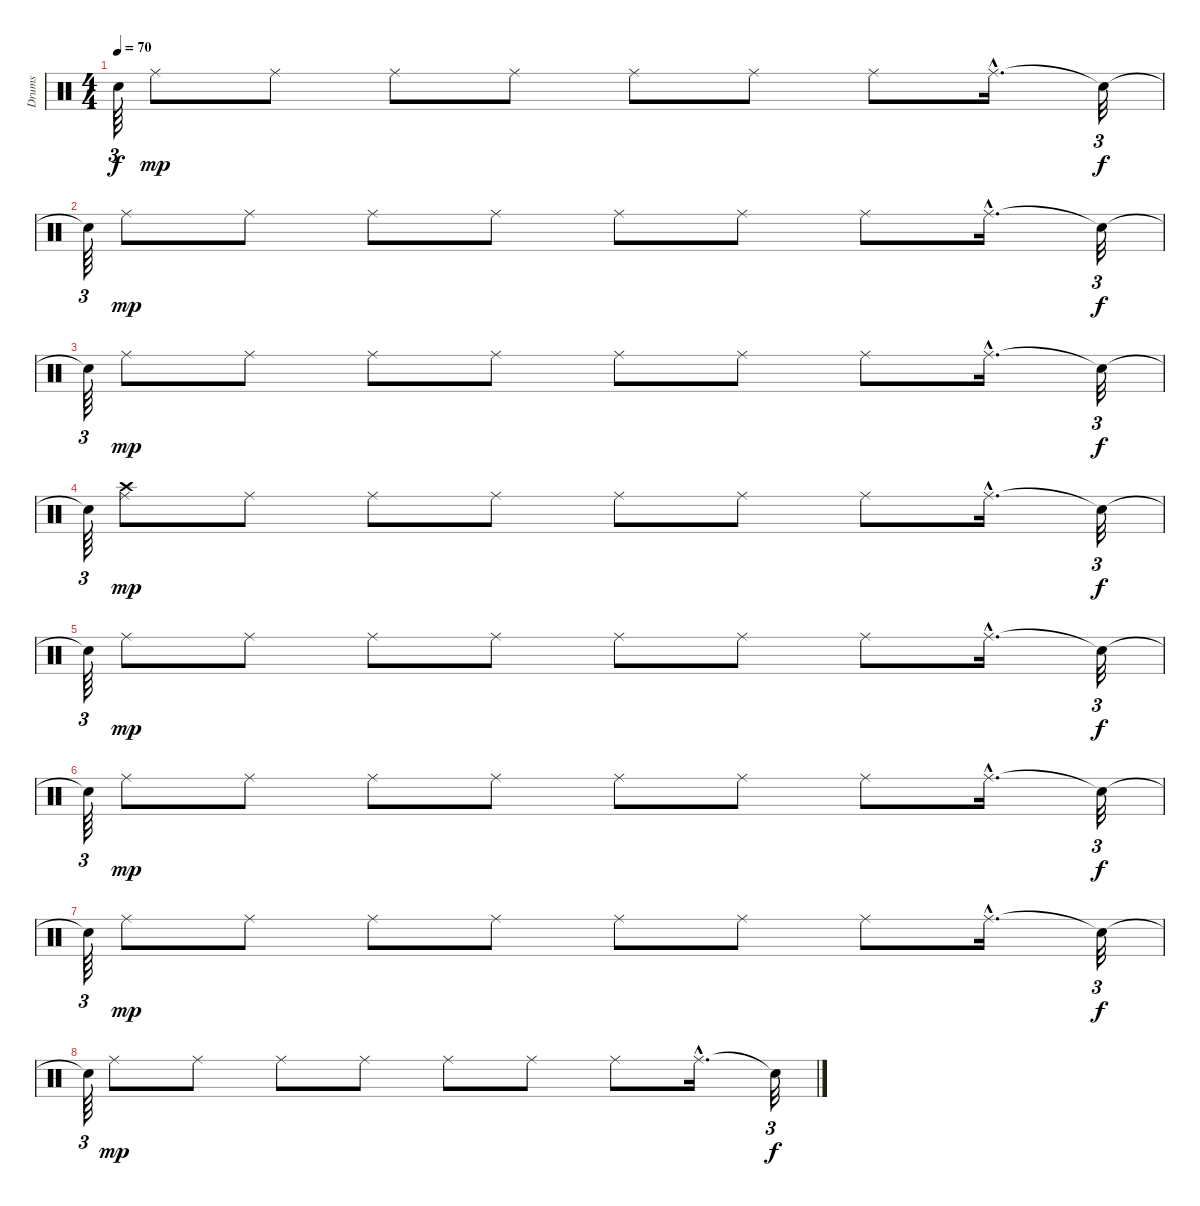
\track ("Drums               " "Drums     ") {instrument percussion}
\staff {score}
\articulation defaults
\ts (4 4)
\tempo 70
\clef neutral
\ks c "Snare (hit)"{t}.64{tu (3 2) dy f} "Ride (middle)".8{dy mp} "Ride (middle)".8 "Ride (middle)".8 "Ride (middle)".8 "Ride (middle)".8 "Ride (middle)".8 "Ride (middle)".8 "Ride (middle)"{hac}.16{d} "Snare (hit)"{t}.32{tu (3 2) dy f}
|
"Snare (hit)"{t}.64{tu (3 2)} "Ride (middle)".8{dy mp} "Ride (middle)".8 "Ride (middle)".8 "Ride (middle)".8 "Ride (middle)".8 "Ride (middle)".8 "Ride (middle)".8 "Ride (middle)"{hac}.16{d} "Snare (hit)"{t}.32{tu (3 2) dy f} |
"Snare (hit)"{t}.64{tu (3 2)} "Ride (middle)".8{dy mp} "Ride (middle)".8 "Ride (middle)".8 "Ride (middle)".8 "Ride (middle)".8 "Ride (middle)".8 "Ride (middle)".8 "Ride (middle)"{hac}.16{d} "Snare (hit)"{t}.32{tu (3 2) dy f} |
"Snare (hit)"{t}.64{tu (3 2)} ("Crash high (hit)" "Ride (middle)").8{dy mp} "Ride (middle)".8 "Ride (middle)".8 "Ride (middle)".8 "Ride (middle)".8 "Ride (middle)".8 "Ride (middle)".8 "Ride (middle)"{hac}.16{d} "Snare (hit)"{t}.32{tu (3 2) dy f} |
"Snare (hit)"{t}.64{tu (3 2)} "Ride (middle)".8{dy mp} "Ride (middle)".8 "Ride (middle)".8 "Ride (middle)".8 "Ride (middle)".8 "Ride (middle)".8 "Ride (middle)".8 "Ride (middle)"{hac}.16{d} "Snare (hit)"{t}.32{tu (3 2) dy f} |
"Snare (hit)"{t}.64{tu (3 2)} "Ride (middle)".8{dy mp} "Ride (middle)".8 "Ride (middle)".8 "Ride (middle)".8 "Ride (middle)".8 "Ride (middle)".8 "Ride (middle)".8 "Ride (middle)"{hac}.16{d} "Snare (hit)"{t}.32{tu (3 2) dy f} |
"Snare (hit)"{t}.64{tu (3 2)} "Ride (middle)".8{dy mp} "Ride (middle)".8 "Ride (middle)".8 "Ride (middle)".8 "Ride (middle)".8 "Ride (middle)".8 "Ride (middle)".8 "Ride (middle)"{hac}.16{d} "Snare (hit)"{t}.32{tu (3 2) dy f} |
"Snare (hit)"{t}.64{tu (3 2)} "Ride (middle)".8{dy mp} "Ride (middle)".8 "Ride (middle)".8 "Ride (middle)".8 "Ride (middle)".8 "Ride (middle)".8 "Ride (middle)".8 "Ride (middle)"{hac}.16{d} "Snare (hit)"{t}.32{tu (3 2) dy f}
